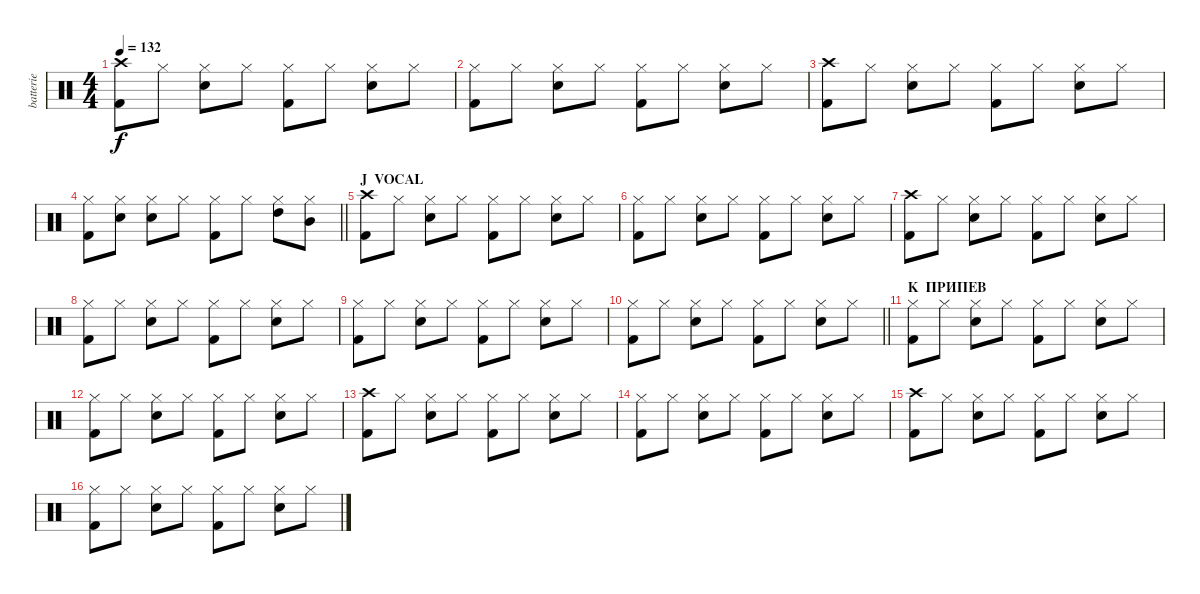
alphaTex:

\track ("batterie" "batterie") {instrument percussion}
\staff {score}
\articulation defaults
\ts (4 4)
\tempo 132
\clef neutral
\ks c
("Crash high (hit)" "Kick (hit) 2").8{dy f} "Hi-Hat (closed)".8 ("Hi-Hat (closed)" "Electric Snare (hit)").8 "Hi-Hat (closed)".8 ("Hi-Hat (closed)" "Kick (hit) 2").8 "Hi-Hat (closed)".8 ("Hi-Hat (closed)" "Electric Snare (hit)").8 "Hi-Hat (closed)".8 |
("Hi-Hat (closed)" "Kick (hit) 2").8 "Hi-Hat (closed)".8 ("Hi-Hat (closed)" "Electric Snare (hit)").8 "Hi-Hat (closed)".8 ("Hi-Hat (closed)" "Kick (hit) 2").8 "Hi-Hat (closed)".8 ("Hi-Hat (closed)" "Electric Snare (hit)").8 "Hi-Hat (closed)".8 |
("Crash high (hit)" "Kick (hit) 2").8 "Hi-Hat (closed)".8 ("Hi-Hat (closed)" "Electric Snare (hit)").8 "Hi-Hat (closed)".8 ("Hi-Hat (closed)" "Kick (hit) 2").8 "Hi-Hat (closed)".8 ("Hi-Hat (closed)" "Electric Snare (hit)").8 "Hi-Hat (closed)".8 |
\barLineRight lightlight
("Hi-Hat (closed)" "Kick (hit) 2").8 ("Hi-Hat (closed)" "Electric Snare (hit)").8 ("Hi-Hat (closed)" "Electric Snare (hit)").8 "Hi-Hat (closed)".8 ("Hi-Hat (closed)" "Kick (hit) 2").8 "Hi-Hat (closed)".8 ("Hi-Hat (closed)" "High Tom (hit)").8 ("Hi-Hat (closed)" "Mid Tom (hit)").8 |
\section ("" "J  VOCAL")
("Crash high (hit)" "Kick (hit) 2").8 "Hi-Hat (closed)".8 ("Hi-Hat (closed)" "Electric Snare (hit)").8 "Hi-Hat (closed)".8 ("Hi-Hat (closed)" "Kick (hit) 2").8 "Hi-Hat (closed)".8 ("Hi-Hat (closed)" "Electric Snare (hit)").8 "Hi-Hat (closed)".8 |
("Hi-Hat (closed)" "Kick (hit) 2").8 "Hi-Hat (closed)".8 ("Hi-Hat (closed)" "Electric Snare (hit)").8 "Hi-Hat (closed)".8 ("Hi-Hat (closed)" "Kick (hit) 2").8 "Hi-Hat (closed)".8 ("Hi-Hat (closed)" "Electric Snare (hit)").8 "Hi-Hat (closed)".8 |
("Crash high (hit)" "Kick (hit) 2").8 "Hi-Hat (closed)".8 ("Hi-Hat (closed)" "Electric Snare (hit)").8 "Hi-Hat (closed)".8 ("Hi-Hat (closed)" "Kick (hit) 2").8 "Hi-Hat (closed)".8 ("Hi-Hat (closed)" "Electric Snare (hit)").8 "Hi-Hat (closed)".8 |
("Hi-Hat (closed)" "Kick (hit) 2").8 "Hi-Hat (closed)".8 ("Hi-Hat (closed)" "Electric Snare (hit)").8 "Hi-Hat (closed)".8 ("Hi-Hat (closed)" "Kick (hit) 2").8 "Hi-Hat (closed)".8 ("Hi-Hat (closed)" "Electric Snare (hit)").8 "Hi-Hat (closed)".8 |
("Hi-Hat (closed)" "Kick (hit) 2").8 "Hi-Hat (closed)".8 ("Hi-Hat (closed)" "Electric Snare (hit)").8 "Hi-Hat (closed)".8 ("Hi-Hat (closed)" "Kick (hit) 2").8 "Hi-Hat (closed)".8 ("Hi-Hat (closed)" "Electric Snare (hit)").8 "Hi-Hat (closed)".8 |
\barLineRight lightlight
("Hi-Hat (closed)" "Kick (hit) 2").8 "Hi-Hat (closed)".8 ("Hi-Hat (closed)" "Electric Snare (hit)").8 "Hi-Hat (closed)".8 ("Hi-Hat (closed)" "Kick (hit) 2").8 "Hi-Hat (closed)".8 ("Hi-Hat (closed)" "Electric Snare (hit)").8 "Hi-Hat (closed)".8 |
\section ("" "K  ПРИПЕВ")
("Hi-Hat (closed)" "Kick (hit) 2").8 "Hi-Hat (closed)".8 ("Hi-Hat (closed)" "Electric Snare (hit)").8 "Hi-Hat (closed)".8 ("Hi-Hat (closed)" "Kick (hit) 2").8 "Hi-Hat (closed)".8 ("Hi-Hat (closed)" "Electric Snare (hit)").8 "Hi-Hat (closed)".8 |
("Hi-Hat (closed)" "Kick (hit) 2").8 "Hi-Hat (closed)".8 ("Hi-Hat (closed)" "Electric Snare (hit)").8 "Hi-Hat (closed)".8 ("Hi-Hat (closed)" "Kick (hit) 2").8 "Hi-Hat (closed)".8 ("Hi-Hat (closed)" "Electric Snare (hit)").8 "Hi-Hat (closed)".8 |
("Crash high (hit)" "Kick (hit) 2").8 "Hi-Hat (closed)".8 ("Hi-Hat (closed)" "Electric Snare (hit)").8 "Hi-Hat (closed)".8 ("Hi-Hat (closed)" "Kick (hit) 2").8 "Hi-Hat (closed)".8 ("Hi-Hat (closed)" "Electric Snare (hit)").8 "Hi-Hat (closed)".8 |
("Hi-Hat (closed)" "Kick (hit) 2").8 "Hi-Hat (closed)".8 ("Hi-Hat (closed)" "Electric Snare (hit)").8 "Hi-Hat (closed)".8 ("Hi-Hat (closed)" "Kick (hit) 2").8 "Hi-Hat (closed)".8 ("Hi-Hat (closed)" "Electric Snare (hit)").8 "Hi-Hat (closed)".8 |
("Crash high (hit)" "Kick (hit) 2").8 "Hi-Hat (closed)".8 ("Hi-Hat (closed)" "Electric Snare (hit)").8 "Hi-Hat (closed)".8 ("Hi-Hat (closed)" "Kick (hit) 2").8 "Hi-Hat (closed)".8 ("Hi-Hat (closed)" "Electric Snare (hit)").8 "Hi-Hat (closed)".8 |
("Hi-Hat (closed)" "Kick (hit) 2").8 "Hi-Hat (closed)".8 ("Hi-Hat (closed)" "Electric Snare (hit)").8 "Hi-Hat (closed)".8 ("Hi-Hat (closed)" "Kick (hit) 2").8 "Hi-Hat (closed)".8 ("Hi-Hat (closed)" "Electric Snare (hit)").8 "Hi-Hat (closed)".8
